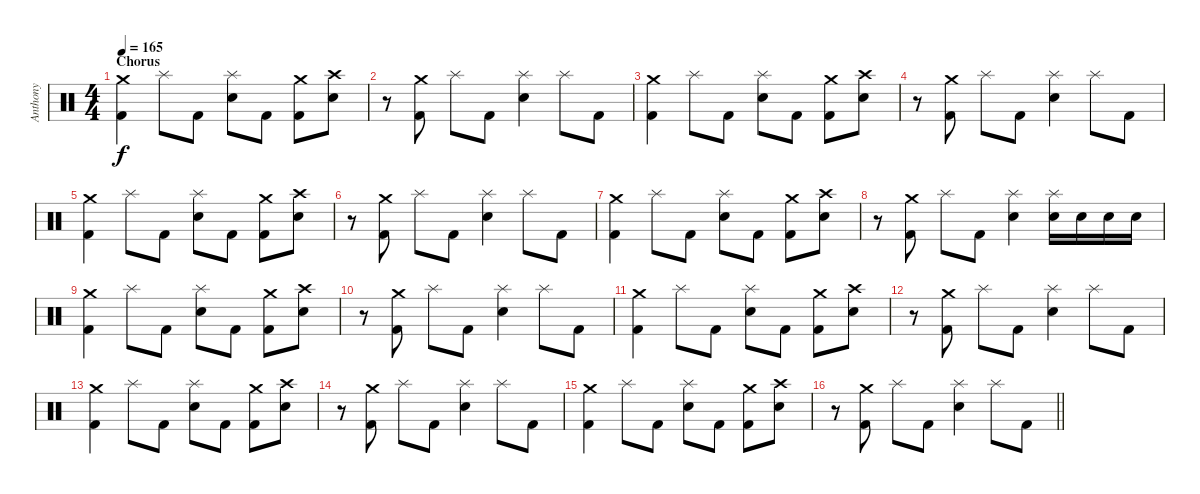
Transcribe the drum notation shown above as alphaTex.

\track ("Anthony" "Anthony") {instrument percussion}
\staff {score}
\articulation defaults
\ts (4 4)
\section ("" "Chorus")
\tempo 165
\clef neutral
\ks c
("Crash medium (hit)" "Kick (hit) 2").4{dy f} "Splash (hit)".8 "Kick (hit) 2".8 ("Splash (hit)" "Electric Snare (hit)").8 "Kick (hit) 2".8 ("Crash medium (hit)" "Kick (hit) 2").8 ("Crash high (hit)" "Electric Snare (hit)").8 |
r.8 ("Crash medium (hit)" "Kick (hit) 2").8 "Splash (hit)".8 "Kick (hit) 2".8 ("Splash (hit)" "Electric Snare (hit)").4 "Splash (hit)".8 "Kick (hit) 2".8 |
("Crash medium (hit)" "Kick (hit) 2").4 "Splash (hit)".8 "Kick (hit) 2".8 ("Splash (hit)" "Electric Snare (hit)").8 "Kick (hit) 2".8 ("Crash medium (hit)" "Kick (hit) 2").8 ("Crash high (hit)" "Electric Snare (hit)").8 |
r.8 ("Crash medium (hit)" "Kick (hit) 2").8 "Splash (hit)".8 "Kick (hit) 2".8 ("Splash (hit)" "Electric Snare (hit)").4 "Splash (hit)".8 "Kick (hit) 2".8 |
("Crash medium (hit)" "Kick (hit) 2").4 "Splash (hit)".8 "Kick (hit) 2".8 ("Splash (hit)" "Electric Snare (hit)").8 "Kick (hit) 2".8 ("Crash medium (hit)" "Kick (hit) 2").8 ("Crash high (hit)" "Electric Snare (hit)").8 |
r.8 ("Crash medium (hit)" "Kick (hit) 2").8 "Splash (hit)".8 "Kick (hit) 2".8 ("Splash (hit)" "Electric Snare (hit)").4 "Splash (hit)".8 "Kick (hit) 2".8 |
("Crash medium (hit)" "Kick (hit) 2").4 "Splash (hit)".8 "Kick (hit) 2".8 ("Splash (hit)" "Electric Snare (hit)").8 "Kick (hit) 2".8 ("Crash medium (hit)" "Kick (hit) 2").8 ("Crash high (hit)" "Electric Snare (hit)").8 |
r.8 ("Crash medium (hit)" "Kick (hit) 2").8 "Splash (hit)".8 "Kick (hit) 2".8 ("Splash (hit)" "Electric Snare (hit)").4 ("Splash (hit)" "Electric Snare (hit)").16 "Electric Snare (hit)".16 "Electric Snare (hit)".16 "Electric Snare (hit)".16 |
("Crash medium (hit)" "Kick (hit) 2").4 "Splash (hit)".8 "Kick (hit) 2".8 ("Splash (hit)" "Electric Snare (hit)").8 "Kick (hit) 2".8 ("Crash medium (hit)" "Kick (hit) 2").8 ("Crash high (hit)" "Electric Snare (hit)").8 |
r.8 ("Crash medium (hit)" "Kick (hit) 2").8 "Splash (hit)".8 "Kick (hit) 2".8 ("Splash (hit)" "Electric Snare (hit)").4 "Splash (hit)".8 "Kick (hit) 2".8 |
("Crash medium (hit)" "Kick (hit) 2").4 "Splash (hit)".8 "Kick (hit) 2".8 ("Splash (hit)" "Electric Snare (hit)").8 "Kick (hit) 2".8 ("Crash medium (hit)" "Kick (hit) 2").8 ("Crash high (hit)" "Electric Snare (hit)").8 |
r.8 ("Crash medium (hit)" "Kick (hit) 2").8 "Splash (hit)".8 "Kick (hit) 2".8 ("Splash (hit)" "Electric Snare (hit)").4 "Splash (hit)".8 "Kick (hit) 2".8 |
("Crash medium (hit)" "Kick (hit) 2").4 "Splash (hit)".8 "Kick (hit) 2".8 ("Splash (hit)" "Electric Snare (hit)").8 "Kick (hit) 2".8 ("Crash medium (hit)" "Kick (hit) 2").8 ("Crash high (hit)" "Electric Snare (hit)").8 |
r.8 ("Crash medium (hit)" "Kick (hit) 2").8 "Splash (hit)".8 "Kick (hit) 2".8 ("Splash (hit)" "Electric Snare (hit)").4 "Splash (hit)".8 "Kick (hit) 2".8 |
("Crash medium (hit)" "Kick (hit) 2").4 "Splash (hit)".8 "Kick (hit) 2".8 ("Splash (hit)" "Electric Snare (hit)").8 "Kick (hit) 2".8 ("Crash medium (hit)" "Kick (hit) 2").8 ("Crash high (hit)" "Electric Snare (hit)").8 |
\barLineRight lightlight
r.8 ("Crash medium (hit)" "Kick (hit) 2").8 "Splash (hit)".8 "Kick (hit) 2".8 ("Splash (hit)" "Electric Snare (hit)").4 "Splash (hit)".8 "Kick (hit) 2".8
